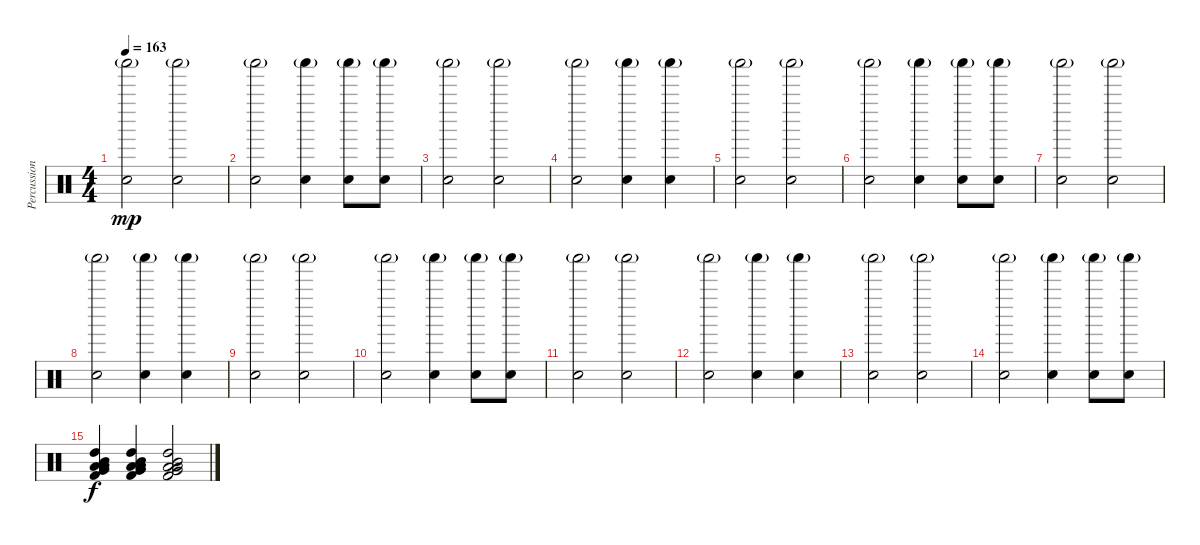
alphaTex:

\track ("Percussion" "Percussion") {instrument percussion}
\staff {score}
\articulation defaults
\ts (4 4)
\tempo 163
\clef neutral
\ks c
("Shaker (hit)"{g} "Snare (hit) 2").2{dy mp} ("Shaker (hit)"{g} "Snare (hit) 2").2 |
("Shaker (hit)"{g} "Snare (hit) 2").2 ("Shaker (hit)"{g} "Snare (hit) 2").4 ("Shaker (hit)"{g} "Snare (hit) 2").8 ("Shaker (hit)"{g} "Snare (hit) 2").8 |
("Shaker (hit)"{g} "Snare (hit) 2").2 ("Shaker (hit)"{g} "Snare (hit) 2").2 |
("Shaker (hit)"{g} "Snare (hit) 2").2 ("Shaker (hit)"{g} "Snare (hit) 2").4 ("Shaker (hit)"{g} "Snare (hit) 2").4 |
("Shaker (hit)"{g} "Snare (hit) 2").2 ("Shaker (hit)"{g} "Snare (hit) 2").2 |
("Shaker (hit)"{g} "Snare (hit) 2").2 ("Shaker (hit)"{g} "Snare (hit) 2").4 ("Shaker (hit)"{g} "Snare (hit) 2").8 ("Shaker (hit)"{g} "Snare (hit) 2").8 |
("Shaker (hit)"{g} "Snare (hit) 2").2 ("Shaker (hit)"{g} "Snare (hit) 2").2 |
("Shaker (hit)"{g} "Snare (hit) 2").2 ("Shaker (hit)"{g} "Snare (hit) 2").4 ("Shaker (hit)"{g} "Snare (hit) 2").4 |
("Shaker (hit)"{g} "Snare (hit) 2").2 ("Shaker (hit)"{g} "Snare (hit) 2").2 |
("Shaker (hit)"{g} "Snare (hit) 2").2 ("Shaker (hit)"{g} "Snare (hit) 2").4 ("Shaker (hit)"{g} "Snare (hit) 2").8 ("Shaker (hit)"{g} "Snare (hit) 2").8 |
("Shaker (hit)"{g} "Snare (hit) 2").2 ("Shaker (hit)"{g} "Snare (hit) 2").2 |
("Shaker (hit)"{g} "Snare (hit) 2").2 ("Shaker (hit)"{g} "Snare (hit) 2").4 ("Shaker (hit)"{g} "Snare (hit) 2").4 |
("Shaker (hit)"{g} "Snare (hit) 2").2 ("Shaker (hit)"{g} "Snare (hit) 2").2 |
("Shaker (hit)"{g} "Snare (hit) 2").2 ("Shaker (hit)"{g} "Snare (hit) 2").4 ("Shaker (hit)"{g} "Snare (hit) 2").8 ("Shaker (hit)"{g} "Snare (hit) 2").8 |
("Mid Tom (hit)" "High Tom (hit)" "Low Tom (hit)" "Very Low Tom (hit)" "Low Floor Tom (hit)" "Kick (hit) 2").4{dy f volume 10} ("Mid Tom (hit)" "High Tom (hit)" "Low Tom (hit)" "Very Low Tom (hit)" "Low Floor Tom (hit)" "Kick (hit) 2").4{volume 4} ("Mid Tom (hit)" "High Tom (hit)" "Low Tom (hit)" "Very Low Tom (hit)" "Low Floor Tom (hit)" "Kick (hit) 2").2
